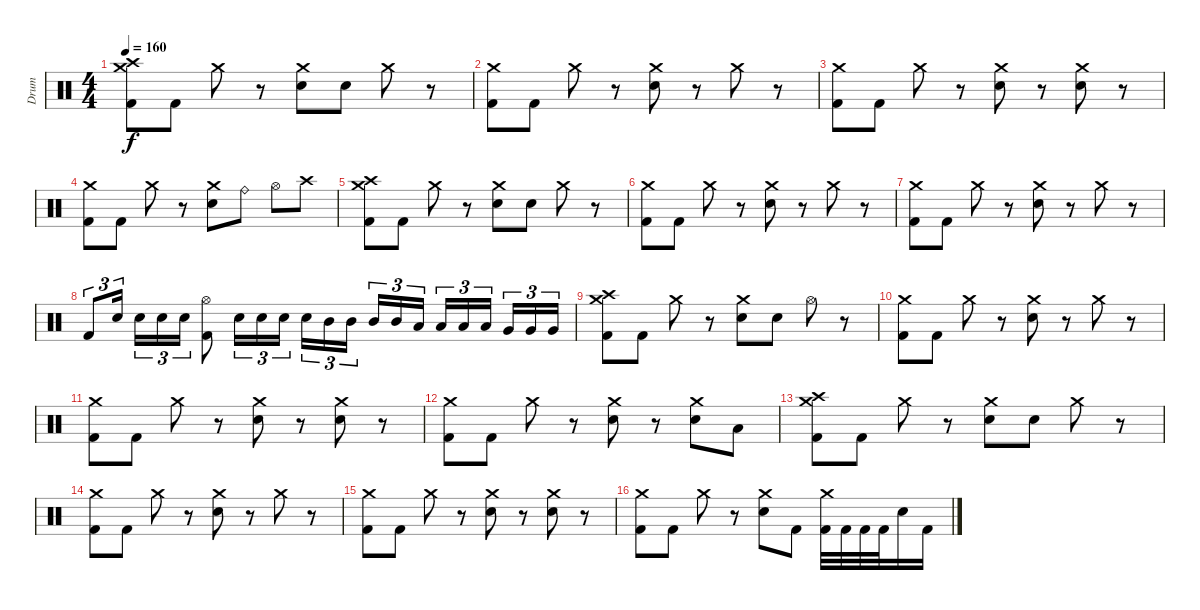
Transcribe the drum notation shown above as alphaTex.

\track ("Drum" "Drum") {instrument percussion}
\staff {score}
\articulation defaults
\ts (4 4)
\tempo 160
\clef neutral
\ks c
("Crash high (hit)" "Crash medium (hit)" "Kick (hit) 2").8{dy f} "Kick (hit) 2".8 "Crash medium (hit)".8 r.8 ("Crash medium (hit)" "Electric Snare (hit)").8 "Electric Snare (hit)".8 "Crash medium (hit)".8 r.8 |
("Crash medium (hit)" "Kick (hit) 2").8 "Kick (hit) 2".8 "Crash medium (hit)".8 r.8 ("Crash medium (hit)" "Electric Snare (hit)").8 r.8 "Crash medium (hit)".8 r.8 |
("Crash medium (hit)" "Kick (hit) 2").8 "Kick (hit) 2".8 "Crash medium (hit)".8 r.8 ("Crash medium (hit)" "Electric Snare (hit)").8 r.8 ("Crash medium (hit)" "Electric Snare (hit)").8 r.8 |
("Crash medium (hit)" "Kick (hit) 2").8 "Kick (hit) 2".8 "Crash medium (hit)".8 r.8 ("Crash medium (hit)" "Electric Snare (hit)").8 "Ride (bell)".8 "Hi-Hat (open)".8 "Crash high (hit)".8 |
("Crash high (hit)" "Crash medium (hit)" "Kick (hit) 2").8 "Kick (hit) 2".8 "Crash medium (hit)".8 r.8 ("Crash medium (hit)" "Electric Snare (hit)").8 "Electric Snare (hit)".8 "Crash medium (hit)".8 r.8 |
("Crash medium (hit)" "Kick (hit) 2").8 "Kick (hit) 2".8 "Crash medium (hit)".8 r.8 ("Crash medium (hit)" "Electric Snare (hit)").8 r.8 "Crash medium (hit)".8 r.8 |
("Crash medium (hit)" "Kick (hit) 2").8 "Kick (hit) 2".8 "Crash medium (hit)".8 r.8 ("Crash medium (hit)" "Electric Snare (hit)").8 r.8 "Crash medium (hit)".8 r.8 |
"Kick (hit) 2".8{tu (3 2)} "Electric Snare (hit)".16{tu (3 2)} "Electric Snare (hit)".16{tu (3 2)} "Electric Snare (hit)".16{tu (3 2)} "Electric Snare (hit)".16{tu (3 2)} ("Hi-Hat (open)" "Kick (hit) 2").8 "Electric Snare (hit)".16{tu (3 2)} "Electric Snare (hit)".16{tu (3 2)} "Electric Snare (hit)".16{tu (3 2)} "Electric Snare (hit)".16{tu (3 2)} "Mid Tom (hit)".16{tu (3 2)} "Mid Tom (hit)".16{tu (3 2)} "Mid Tom (hit)".16{tu (3 2)} "Mid Tom (hit)".16{tu (3 2)} "Low Tom (hit)".16{tu (3 2)} "Low Tom (hit)".16{tu (3 2)} "Low Tom (hit)".16{tu (3 2)} "Low Tom (hit)".16{tu (3 2)} "Very Low Tom (hit)".16{tu (3 2)} "Very Low Tom (hit)".16{tu (3 2)} "Very Low Tom (hit)".16{tu (3 2)} |
("Crash high (hit)" "Crash medium (hit)" "Kick (hit) 2").8 "Kick (hit) 2".8 "Crash medium (hit)".8 r.8 ("Crash medium (hit)" "Electric Snare (hit)").8 "Electric Snare (hit)".8 "Hi-Hat (open)".8 r.8 |
("Crash medium (hit)" "Kick (hit) 2").8 "Kick (hit) 2".8 "Crash medium (hit)".8 r.8 ("Crash medium (hit)" "Electric Snare (hit)").8 r.8 "Crash medium (hit)".8 r.8 |
("Crash medium (hit)" "Kick (hit) 2").8 "Kick (hit) 2".8 "Crash medium (hit)".8 r.8 ("Crash medium (hit)" "Electric Snare (hit)").8 r.8 ("Crash medium (hit)" "Electric Snare (hit)").8 r.8 |
("Crash medium (hit)" "Kick (hit) 2").8 "Kick (hit) 2".8 "Crash medium (hit)".8 r.8 ("Crash medium (hit)" "Electric Snare (hit)").8 r.8 ("Crash medium (hit)" "Electric Snare (hit)").8 "Low Tom (hit)".8 |
("Crash high (hit)" "Crash medium (hit)" "Kick (hit) 2").8 "Kick (hit) 2".8 "Crash medium (hit)".8 r.8 ("Crash medium (hit)" "Electric Snare (hit)").8 "Electric Snare (hit)".8 "Crash medium (hit)".8 r.8 |
("Crash medium (hit)" "Kick (hit) 2").8 "Kick (hit) 2".8 "Crash medium (hit)".8 r.8 ("Crash medium (hit)" "Electric Snare (hit)").8 r.8 "Crash medium (hit)".8 r.8 |
("Crash medium (hit)" "Kick (hit) 2").8 "Kick (hit) 2".8 "Crash medium (hit)".8 r.8 ("Crash medium (hit)" "Electric Snare (hit)").8 r.8 ("Crash medium (hit)" "Electric Snare (hit)").8 r.8 |
("Crash medium (hit)" "Kick (hit) 2").8 "Kick (hit) 2".8 "Crash medium (hit)".8 r.8 ("Crash medium (hit)" "Electric Snare (hit)").8 "Kick (hit) 2".8 ("Crash medium (hit)" "Kick (hit) 2").32 "Kick (hit) 2".32 "Kick (hit) 2".32 "Kick (hit) 2".32 "Electric Snare (hit)".16 "Kick (hit) 2".16
